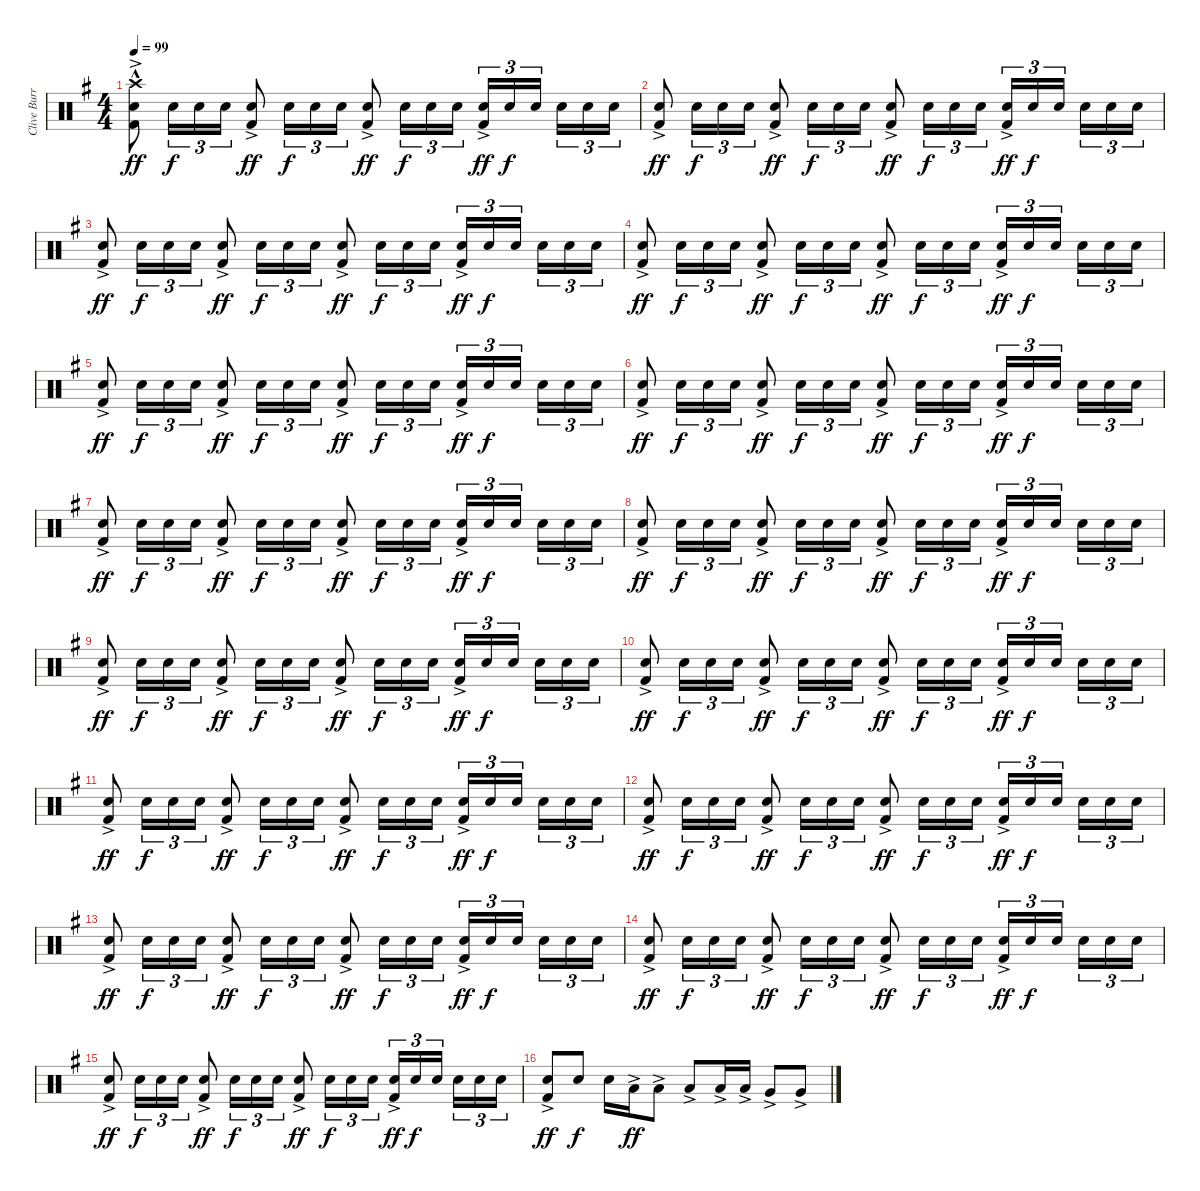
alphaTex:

\track ("Clive Burr" "Clive Burr") {instrument percussion}
\staff {score}
\articulation defaults
\ts (4 4)
\tempo 99
\clef neutral
\ks eminor
("Crash high (hit)"{hac} "Electric Snare (hit)"{ac} "Kick (hit) 2"{ac}).8{dy ff} "Electric Snare (hit)".16{tu (3 2) dy f} "Electric Snare (hit)".16{tu (3 2)} "Electric Snare (hit)".16{tu (3 2)} ("Electric Snare (hit)"{ac} "Kick (hit) 2").8{dy ff} "Electric Snare (hit)".16{tu (3 2) dy f} "Electric Snare (hit)".16{tu (3 2)} "Electric Snare (hit)".16{tu (3 2)} ("Electric Snare (hit)"{ac} "Kick (hit) 2").8{dy ff} "Electric Snare (hit)".16{tu (3 2) dy f} "Electric Snare (hit)".16{tu (3 2)} "Electric Snare (hit)".16{tu (3 2)} ("Electric Snare (hit)"{ac} "Kick (hit) 2").16{tu (3 2) dy ff} "Electric Snare (hit)".16{tu (3 2) dy f} "Electric Snare (hit)".16{tu (3 2) beam splitsecondary} "Electric Snare (hit)".16{tu (3 2)} "Electric Snare (hit)".16{tu (3 2)} "Electric Snare (hit)".16{tu (3 2)} |
("Electric Snare (hit)"{ac} "Kick (hit) 2"{ac}).8{dy ff} "Electric Snare (hit)".16{tu (3 2) dy f} "Electric Snare (hit)".16{tu (3 2)} "Electric Snare (hit)".16{tu (3 2)} ("Electric Snare (hit)"{ac} "Kick (hit) 2").8{dy ff} "Electric Snare (hit)".16{tu (3 2) dy f} "Electric Snare (hit)".16{tu (3 2)} "Electric Snare (hit)".16{tu (3 2)} ("Electric Snare (hit)"{ac} "Kick (hit) 2").8{dy ff} "Electric Snare (hit)".16{tu (3 2) dy f} "Electric Snare (hit)".16{tu (3 2)} "Electric Snare (hit)".16{tu (3 2)} ("Electric Snare (hit)"{ac} "Kick (hit) 2").16{tu (3 2) dy ff} "Electric Snare (hit)".16{tu (3 2) dy f} "Electric Snare (hit)".16{tu (3 2) beam splitsecondary} "Electric Snare (hit)".16{tu (3 2)} "Electric Snare (hit)".16{tu (3 2)} "Electric Snare (hit)".16{tu (3 2)} |
("Electric Snare (hit)"{ac} "Kick (hit) 2"{ac}).8{dy ff} "Electric Snare (hit)".16{tu (3 2) dy f} "Electric Snare (hit)".16{tu (3 2)} "Electric Snare (hit)".16{tu (3 2)} ("Electric Snare (hit)"{ac} "Kick (hit) 2").8{dy ff} "Electric Snare (hit)".16{tu (3 2) dy f} "Electric Snare (hit)".16{tu (3 2)} "Electric Snare (hit)".16{tu (3 2)} ("Electric Snare (hit)"{ac} "Kick (hit) 2").8{dy ff} "Electric Snare (hit)".16{tu (3 2) dy f} "Electric Snare (hit)".16{tu (3 2)} "Electric Snare (hit)".16{tu (3 2)} ("Electric Snare (hit)"{ac} "Kick (hit) 2").16{tu (3 2) dy ff} "Electric Snare (hit)".16{tu (3 2) dy f} "Electric Snare (hit)".16{tu (3 2) beam splitsecondary} "Electric Snare (hit)".16{tu (3 2)} "Electric Snare (hit)".16{tu (3 2)} "Electric Snare (hit)".16{tu (3 2)} |
("Electric Snare (hit)"{ac} "Kick (hit) 2"{ac}).8{dy ff} "Electric Snare (hit)".16{tu (3 2) dy f} "Electric Snare (hit)".16{tu (3 2)} "Electric Snare (hit)".16{tu (3 2)} ("Electric Snare (hit)"{ac} "Kick (hit) 2").8{dy ff} "Electric Snare (hit)".16{tu (3 2) dy f} "Electric Snare (hit)".16{tu (3 2)} "Electric Snare (hit)".16{tu (3 2)} ("Electric Snare (hit)"{ac} "Kick (hit) 2").8{dy ff} "Electric Snare (hit)".16{tu (3 2) dy f} "Electric Snare (hit)".16{tu (3 2)} "Electric Snare (hit)".16{tu (3 2)} ("Electric Snare (hit)"{ac} "Kick (hit) 2").16{tu (3 2) dy ff} "Electric Snare (hit)".16{tu (3 2) dy f} "Electric Snare (hit)".16{tu (3 2) beam splitsecondary} "Electric Snare (hit)".16{tu (3 2)} "Electric Snare (hit)".16{tu (3 2)} "Electric Snare (hit)".16{tu (3 2)} |
("Electric Snare (hit)"{ac} "Kick (hit) 2"{ac}).8{dy ff} "Electric Snare (hit)".16{tu (3 2) dy f} "Electric Snare (hit)".16{tu (3 2)} "Electric Snare (hit)".16{tu (3 2)} ("Electric Snare (hit)"{ac} "Kick (hit) 2").8{dy ff} "Electric Snare (hit)".16{tu (3 2) dy f} "Electric Snare (hit)".16{tu (3 2)} "Electric Snare (hit)".16{tu (3 2)} ("Electric Snare (hit)"{ac} "Kick (hit) 2").8{dy ff} "Electric Snare (hit)".16{tu (3 2) dy f} "Electric Snare (hit)".16{tu (3 2)} "Electric Snare (hit)".16{tu (3 2)} ("Electric Snare (hit)"{ac} "Kick (hit) 2").16{tu (3 2) dy ff} "Electric Snare (hit)".16{tu (3 2) dy f} "Electric Snare (hit)".16{tu (3 2) beam splitsecondary} "Electric Snare (hit)".16{tu (3 2)} "Electric Snare (hit)".16{tu (3 2)} "Electric Snare (hit)".16{tu (3 2)} |
("Electric Snare (hit)"{ac} "Kick (hit) 2"{ac}).8{dy ff} "Electric Snare (hit)".16{tu (3 2) dy f} "Electric Snare (hit)".16{tu (3 2)} "Electric Snare (hit)".16{tu (3 2)} ("Electric Snare (hit)"{ac} "Kick (hit) 2").8{dy ff} "Electric Snare (hit)".16{tu (3 2) dy f} "Electric Snare (hit)".16{tu (3 2)} "Electric Snare (hit)".16{tu (3 2)} ("Electric Snare (hit)"{ac} "Kick (hit) 2").8{dy ff} "Electric Snare (hit)".16{tu (3 2) dy f} "Electric Snare (hit)".16{tu (3 2)} "Electric Snare (hit)".16{tu (3 2)} ("Electric Snare (hit)"{ac} "Kick (hit) 2").16{tu (3 2) dy ff} "Electric Snare (hit)".16{tu (3 2) dy f} "Electric Snare (hit)".16{tu (3 2) beam splitsecondary} "Electric Snare (hit)".16{tu (3 2)} "Electric Snare (hit)".16{tu (3 2)} "Electric Snare (hit)".16{tu (3 2)} |
("Electric Snare (hit)"{ac} "Kick (hit) 2"{ac}).8{dy ff} "Electric Snare (hit)".16{tu (3 2) dy f} "Electric Snare (hit)".16{tu (3 2)} "Electric Snare (hit)".16{tu (3 2)} ("Electric Snare (hit)"{ac} "Kick (hit) 2").8{dy ff} "Electric Snare (hit)".16{tu (3 2) dy f} "Electric Snare (hit)".16{tu (3 2)} "Electric Snare (hit)".16{tu (3 2)} ("Electric Snare (hit)"{ac} "Kick (hit) 2").8{dy ff} "Electric Snare (hit)".16{tu (3 2) dy f} "Electric Snare (hit)".16{tu (3 2)} "Electric Snare (hit)".16{tu (3 2)} ("Electric Snare (hit)"{ac} "Kick (hit) 2").16{tu (3 2) dy ff} "Electric Snare (hit)".16{tu (3 2) dy f} "Electric Snare (hit)".16{tu (3 2) beam splitsecondary} "Electric Snare (hit)".16{tu (3 2)} "Electric Snare (hit)".16{tu (3 2)} "Electric Snare (hit)".16{tu (3 2)} |
("Electric Snare (hit)"{ac} "Kick (hit) 2"{ac}).8{dy ff} "Electric Snare (hit)".16{tu (3 2) dy f} "Electric Snare (hit)".16{tu (3 2)} "Electric Snare (hit)".16{tu (3 2)} ("Electric Snare (hit)"{ac} "Kick (hit) 2").8{dy ff} "Electric Snare (hit)".16{tu (3 2) dy f} "Electric Snare (hit)".16{tu (3 2)} "Electric Snare (hit)".16{tu (3 2)} ("Electric Snare (hit)"{ac} "Kick (hit) 2").8{dy ff} "Electric Snare (hit)".16{tu (3 2) dy f} "Electric Snare (hit)".16{tu (3 2)} "Electric Snare (hit)".16{tu (3 2)} ("Electric Snare (hit)"{ac} "Kick (hit) 2").16{tu (3 2) dy ff} "Electric Snare (hit)".16{tu (3 2) dy f} "Electric Snare (hit)".16{tu (3 2) beam splitsecondary} "Electric Snare (hit)".16{tu (3 2)} "Electric Snare (hit)".16{tu (3 2)} "Electric Snare (hit)".16{tu (3 2)} |
("Electric Snare (hit)"{ac} "Kick (hit) 2"{ac}).8{dy ff} "Electric Snare (hit)".16{tu (3 2) dy f} "Electric Snare (hit)".16{tu (3 2)} "Electric Snare (hit)".16{tu (3 2)} ("Electric Snare (hit)"{ac} "Kick (hit) 2").8{dy ff} "Electric Snare (hit)".16{tu (3 2) dy f} "Electric Snare (hit)".16{tu (3 2)} "Electric Snare (hit)".16{tu (3 2)} ("Electric Snare (hit)"{ac} "Kick (hit) 2").8{dy ff} "Electric Snare (hit)".16{tu (3 2) dy f} "Electric Snare (hit)".16{tu (3 2)} "Electric Snare (hit)".16{tu (3 2)} ("Electric Snare (hit)"{ac} "Kick (hit) 2").16{tu (3 2) dy ff} "Electric Snare (hit)".16{tu (3 2) dy f} "Electric Snare (hit)".16{tu (3 2) beam splitsecondary} "Electric Snare (hit)".16{tu (3 2)} "Electric Snare (hit)".16{tu (3 2)} "Electric Snare (hit)".16{tu (3 2)} |
("Electric Snare (hit)"{ac} "Kick (hit) 2"{ac}).8{dy ff} "Electric Snare (hit)".16{tu (3 2) dy f} "Electric Snare (hit)".16{tu (3 2)} "Electric Snare (hit)".16{tu (3 2)} ("Electric Snare (hit)"{ac} "Kick (hit) 2").8{dy ff} "Electric Snare (hit)".16{tu (3 2) dy f} "Electric Snare (hit)".16{tu (3 2)} "Electric Snare (hit)".16{tu (3 2)} ("Electric Snare (hit)"{ac} "Kick (hit) 2").8{dy ff} "Electric Snare (hit)".16{tu (3 2) dy f} "Electric Snare (hit)".16{tu (3 2)} "Electric Snare (hit)".16{tu (3 2)} ("Electric Snare (hit)"{ac} "Kick (hit) 2").16{tu (3 2) dy ff} "Electric Snare (hit)".16{tu (3 2) dy f} "Electric Snare (hit)".16{tu (3 2) beam splitsecondary} "Electric Snare (hit)".16{tu (3 2)} "Electric Snare (hit)".16{tu (3 2)} "Electric Snare (hit)".16{tu (3 2)} |
("Electric Snare (hit)"{ac} "Kick (hit) 2"{ac}).8{dy ff} "Electric Snare (hit)".16{tu (3 2) dy f} "Electric Snare (hit)".16{tu (3 2)} "Electric Snare (hit)".16{tu (3 2)} ("Electric Snare (hit)"{ac} "Kick (hit) 2").8{dy ff} "Electric Snare (hit)".16{tu (3 2) dy f} "Electric Snare (hit)".16{tu (3 2)} "Electric Snare (hit)".16{tu (3 2)} ("Electric Snare (hit)"{ac} "Kick (hit) 2").8{dy ff} "Electric Snare (hit)".16{tu (3 2) dy f} "Electric Snare (hit)".16{tu (3 2)} "Electric Snare (hit)".16{tu (3 2)} ("Electric Snare (hit)"{ac} "Kick (hit) 2").16{tu (3 2) dy ff} "Electric Snare (hit)".16{tu (3 2) dy f} "Electric Snare (hit)".16{tu (3 2) beam splitsecondary} "Electric Snare (hit)".16{tu (3 2)} "Electric Snare (hit)".16{tu (3 2)} "Electric Snare (hit)".16{tu (3 2)} |
("Electric Snare (hit)"{ac} "Kick (hit) 2"{ac}).8{dy ff} "Electric Snare (hit)".16{tu (3 2) dy f} "Electric Snare (hit)".16{tu (3 2)} "Electric Snare (hit)".16{tu (3 2)} ("Electric Snare (hit)"{ac} "Kick (hit) 2").8{dy ff} "Electric Snare (hit)".16{tu (3 2) dy f} "Electric Snare (hit)".16{tu (3 2)} "Electric Snare (hit)".16{tu (3 2)} ("Electric Snare (hit)"{ac} "Kick (hit) 2").8{dy ff} "Electric Snare (hit)".16{tu (3 2) dy f} "Electric Snare (hit)".16{tu (3 2)} "Electric Snare (hit)".16{tu (3 2)} ("Electric Snare (hit)"{ac} "Kick (hit) 2").16{tu (3 2) dy ff} "Electric Snare (hit)".16{tu (3 2) dy f} "Electric Snare (hit)".16{tu (3 2) beam splitsecondary} "Electric Snare (hit)".16{tu (3 2)} "Electric Snare (hit)".16{tu (3 2)} "Electric Snare (hit)".16{tu (3 2)} |
("Electric Snare (hit)"{ac} "Kick (hit) 2"{ac}).8{dy ff} "Electric Snare (hit)".16{tu (3 2) dy f} "Electric Snare (hit)".16{tu (3 2)} "Electric Snare (hit)".16{tu (3 2)} ("Electric Snare (hit)"{ac} "Kick (hit) 2").8{dy ff} "Electric Snare (hit)".16{tu (3 2) dy f} "Electric Snare (hit)".16{tu (3 2)} "Electric Snare (hit)".16{tu (3 2)} ("Electric Snare (hit)"{ac} "Kick (hit) 2").8{dy ff} "Electric Snare (hit)".16{tu (3 2) dy f} "Electric Snare (hit)".16{tu (3 2)} "Electric Snare (hit)".16{tu (3 2)} ("Electric Snare (hit)"{ac} "Kick (hit) 2").16{tu (3 2) dy ff} "Electric Snare (hit)".16{tu (3 2) dy f} "Electric Snare (hit)".16{tu (3 2) beam splitsecondary} "Electric Snare (hit)".16{tu (3 2)} "Electric Snare (hit)".16{tu (3 2)} "Electric Snare (hit)".16{tu (3 2)} |
("Electric Snare (hit)"{ac} "Kick (hit) 2"{ac}).8{dy ff} "Electric Snare (hit)".16{tu (3 2) dy f} "Electric Snare (hit)".16{tu (3 2)} "Electric Snare (hit)".16{tu (3 2)} ("Electric Snare (hit)"{ac} "Kick (hit) 2").8{dy ff} "Electric Snare (hit)".16{tu (3 2) dy f} "Electric Snare (hit)".16{tu (3 2)} "Electric Snare (hit)".16{tu (3 2)} ("Electric Snare (hit)"{ac} "Kick (hit) 2").8{dy ff} "Electric Snare (hit)".16{tu (3 2) dy f} "Electric Snare (hit)".16{tu (3 2)} "Electric Snare (hit)".16{tu (3 2)} ("Electric Snare (hit)"{ac} "Kick (hit) 2").16{tu (3 2) dy ff} "Electric Snare (hit)".16{tu (3 2) dy f} "Electric Snare (hit)".16{tu (3 2) beam splitsecondary} "Electric Snare (hit)".16{tu (3 2)} "Electric Snare (hit)".16{tu (3 2)} "Electric Snare (hit)".16{tu (3 2)} |
("Electric Snare (hit)"{ac} "Kick (hit) 2"{ac}).8{dy ff} "Electric Snare (hit)".16{tu (3 2) dy f} "Electric Snare (hit)".16{tu (3 2)} "Electric Snare (hit)".16{tu (3 2)} ("Electric Snare (hit)"{ac} "Kick (hit) 2").8{dy ff} "Electric Snare (hit)".16{tu (3 2) dy f} "Electric Snare (hit)".16{tu (3 2)} "Electric Snare (hit)".16{tu (3 2)} ("Electric Snare (hit)"{ac} "Kick (hit) 2").8{dy ff} "Electric Snare (hit)".16{tu (3 2) dy f} "Electric Snare (hit)".16{tu (3 2)} "Electric Snare (hit)".16{tu (3 2)} ("Electric Snare (hit)"{ac} "Kick (hit) 2").16{tu (3 2) dy ff} "Electric Snare (hit)".16{tu (3 2) dy f} "Electric Snare (hit)".16{tu (3 2) beam splitsecondary} "Electric Snare (hit)".16{tu (3 2)} "Electric Snare (hit)".16{tu (3 2)} "Electric Snare (hit)".16{tu (3 2)} |
("Electric Snare (hit)"{ac} "Kick (hit) 2"{ac}).8{dy ff} "Electric Snare (hit)".8{dy f} "Electric Snare (hit)".16 "Low Tom (hit)"{ac}.16{dy ff} "Low Tom (hit)"{ac}.8 "Low Tom (hit)"{ac}.8 "Low Tom (hit)"{ac}.16 "Low Tom (hit)"{ac}.16 "Very Low Tom (hit)"{ac}.8 "Very Low Tom (hit)"{ac}.8
